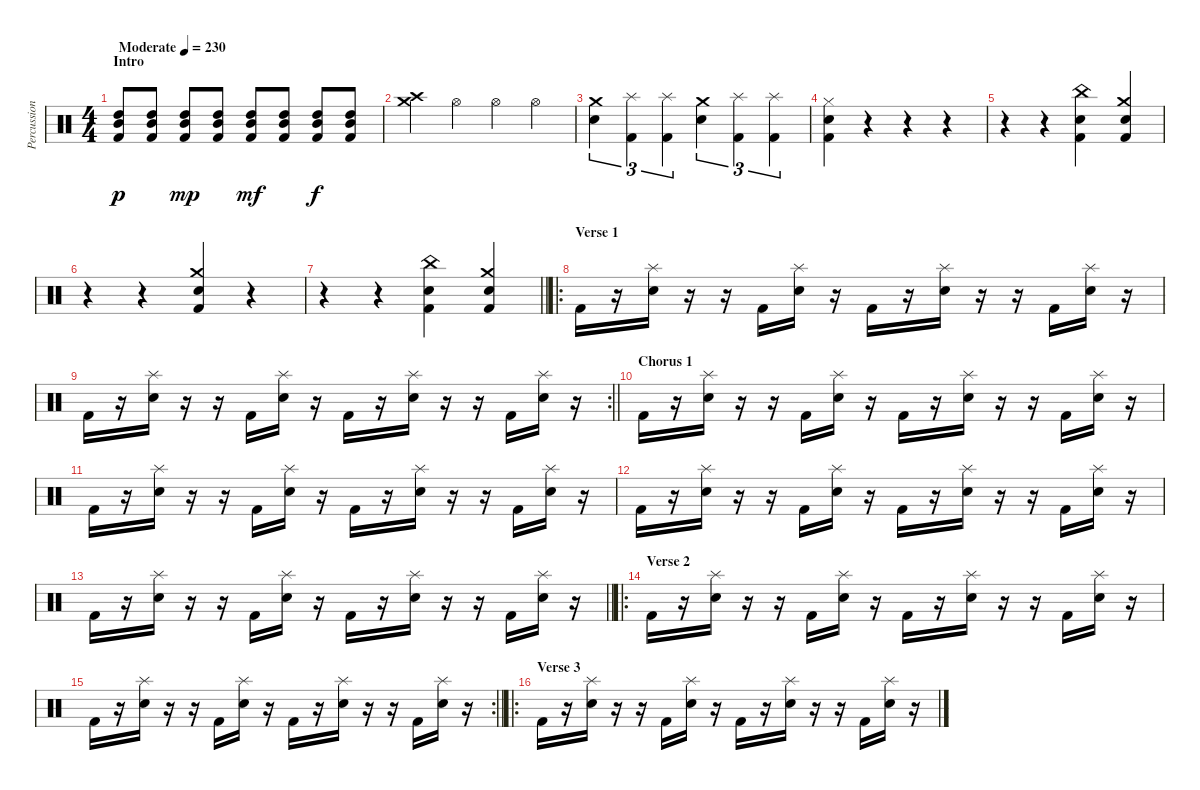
\track ("Percussions" "Percussion") {instrument percussion}
\staff {score}
\articulation defaults
\ts (4 4)
\section ("" "Intro")
\tempo (230 "Moderate")
\clef neutral
\ks c
("High Tom (hit)" "Mid Tom (hit)" "Kick (hit) 2").8{dy p} ("High Tom (hit)" "Mid Tom (hit)" "Kick (hit) 2").8 ("High Tom (hit)" "Mid Tom (hit)" "Kick (hit) 2").8{dy mp} ("High Tom (hit)" "Mid Tom (hit)" "Kick (hit) 2").8 ("High Tom (hit)" "Mid Tom (hit)" "Kick (hit) 2").8{dy mf} ("High Tom (hit)" "Mid Tom (hit)" "Kick (hit) 2").8 ("High Tom (hit)" "Mid Tom (hit)" "Kick (hit) 2").8{dy f} ("High Tom (hit)" "Mid Tom (hit)" "Kick (hit) 2").8 |
("Crash high (hit)" "Crash medium (hit)").4 "Hi-Hat (open)".4 "Hi-Hat (open)".4 "Hi-Hat (open)".4 |
("Crash medium (hit)" "Electric Snare (hit)").4{tu (3 2)} ("Splash (hit)" "Kick (hit) 2").4{tu (3 2)} ("Splash (hit)" "Kick (hit) 2").4{tu (3 2)} ("Crash medium (hit)" "Electric Snare (hit)").4{tu (3 2)} ("Splash (hit)" "Kick (hit) 2").4{tu (3 2)} ("Splash (hit)" "Kick (hit) 2").4{tu (3 2)} |
("Hi-Hat (closed)" "Electric Snare (hit)" "Kick (hit) 2").4 r.4 r.4 r.4 |
r.4 r.4 ("China (hit)" "Electric Snare (hit)" "Kick (hit) 2").4 ("Crash medium (hit)" "Electric Snare (hit)" "Kick (hit) 2").4 |
r.4 r.4 ("Crash medium (hit)" "Electric Snare (hit)" "Kick (hit) 2").4 r.4 |
\barLineRight lightlight
r.4 r.4 ("China (hit)" "Electric Snare (hit)" "Kick (hit) 2").4 ("Crash medium (hit)" "Electric Snare (hit)" "Kick (hit) 2").4 |
\ro
\section ("" "Verse 1")
"Kick (hit) 2".16 r.16 ("Splash (hit)" "Electric Snare (hit)").16 r.16 r.16 "Kick (hit) 2".16 ("Splash (hit)" "Electric Snare (hit)").16 r.16 "Kick (hit) 2".16 r.16 ("Splash (hit)" "Electric Snare (hit)").16 r.16 r.16 "Kick (hit) 2".16 ("Splash (hit)" "Electric Snare (hit)").16 r.16 |
\rc 2
\barLineRight lightlight "Kick (hit) 2".16
r.16 ("Splash (hit)" "Electric Snare (hit)").16 r.16 r.16 "Kick (hit) 2".16 ("Splash (hit)" "Electric Snare (hit)").16 r.16 "Kick (hit) 2".16 r.16 ("Splash (hit)" "Electric Snare (hit)").16 r.16 r.16 "Kick (hit) 2".16 ("Splash (hit)" "Electric Snare (hit)").16 r.16 |
\section ("" "Chorus 1")
"Kick (hit) 2".16 r.16 ("Splash (hit)" "Electric Snare (hit)").16 r.16 r.16 "Kick (hit) 2".16 ("Splash (hit)" "Electric Snare (hit)").16 r.16 "Kick (hit) 2".16 r.16 ("Splash (hit)" "Electric Snare (hit)").16 r.16 r.16 "Kick (hit) 2".16 ("Splash (hit)" "Electric Snare (hit)").16 r.16 |
"Kick (hit) 2".16 r.16 ("Splash (hit)" "Electric Snare (hit)").16 r.16 r.16 "Kick (hit) 2".16 ("Splash (hit)" "Electric Snare (hit)").16 r.16 "Kick (hit) 2".16 r.16 ("Splash (hit)" "Electric Snare (hit)").16 r.16 r.16 "Kick (hit) 2".16 ("Splash (hit)" "Electric Snare (hit)").16 r.16 |
"Kick (hit) 2".16 r.16 ("Splash (hit)" "Electric Snare (hit)").16 r.16 r.16 "Kick (hit) 2".16 ("Splash (hit)" "Electric Snare (hit)").16 r.16 "Kick (hit) 2".16 r.16 ("Splash (hit)" "Electric Snare (hit)").16 r.16 r.16 "Kick (hit) 2".16 ("Splash (hit)" "Electric Snare (hit)").16 r.16 |
\barLineRight lightlight "Kick (hit) 2".16
r.16 ("Splash (hit)" "Electric Snare (hit)").16 r.16 r.16 "Kick (hit) 2".16 ("Splash (hit)" "Electric Snare (hit)").16 r.16 "Kick (hit) 2".16 r.16 ("Splash (hit)" "Electric Snare (hit)").16 r.16 r.16 "Kick (hit) 2".16 ("Splash (hit)" "Electric Snare (hit)").16 r.16 |
\ro
\section ("" "Verse 2")
"Kick (hit) 2".16 r.16 ("Splash (hit)" "Electric Snare (hit)").16 r.16 r.16 "Kick (hit) 2".16 ("Splash (hit)" "Electric Snare (hit)").16 r.16 "Kick (hit) 2".16 r.16 ("Splash (hit)" "Electric Snare (hit)").16 r.16 r.16 "Kick (hit) 2".16 ("Splash (hit)" "Electric Snare (hit)").16 r.16 |
\rc 2
\barLineRight lightlight "Kick (hit) 2".16
r.16 ("Splash (hit)" "Electric Snare (hit)").16 r.16 r.16 "Kick (hit) 2".16 ("Splash (hit)" "Electric Snare (hit)").16 r.16 "Kick (hit) 2".16 r.16 ("Splash (hit)" "Electric Snare (hit)").16 r.16 r.16 "Kick (hit) 2".16 ("Splash (hit)" "Electric Snare (hit)").16 r.16 |
\ro
\section ("" "Verse 3")
"Kick (hit) 2".16 r.16 ("Splash (hit)" "Electric Snare (hit)").16 r.16 r.16 "Kick (hit) 2".16 ("Splash (hit)" "Electric Snare (hit)").16 r.16 "Kick (hit) 2".16 r.16 ("Splash (hit)" "Electric Snare (hit)").16 r.16 r.16 "Kick (hit) 2".16 ("Splash (hit)" "Electric Snare (hit)").16 r.16
